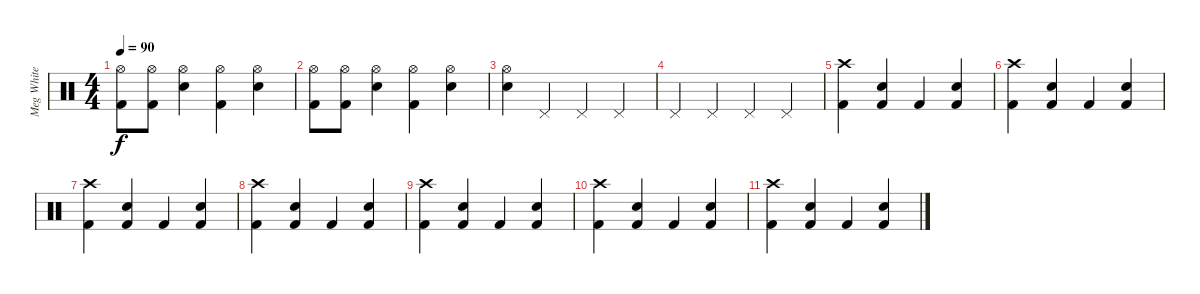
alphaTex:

\track ("Meg White" "Meg White") {instrument percussion}
\staff {score}
\articulation defaults
\ts (4 4)
\tempo 90
\clef neutral
\ks c
("Hi-Hat (open)" "Kick (hit) 2").8{dy f} ("Hi-Hat (open)" "Kick (hit) 2").8 ("Hi-Hat (open)" "Electric Snare (hit)").4 ("Hi-Hat (open)" "Kick (hit) 2").4 ("Hi-Hat (open)" "Electric Snare (hit)").4 |
("Hi-Hat (open)" "Kick (hit) 2").8 ("Hi-Hat (open)" "Kick (hit) 2").8 ("Hi-Hat (open)" "Electric Snare (hit)").4 ("Hi-Hat (open)" "Kick (hit) 2").4 ("Hi-Hat (open)" "Electric Snare (hit)").4 |
("Hi-Hat (open)" "Electric Snare (hit)").4 "Pedal Hi-Hat (hit)".4 "Pedal Hi-Hat (hit)".4 "Pedal Hi-Hat (hit)".4 |
"Pedal Hi-Hat (hit)".4 "Pedal Hi-Hat (hit)".4 "Pedal Hi-Hat (hit)".4 "Pedal Hi-Hat (hit)".4 |
("Crash high (hit)" "Kick (hit) 2").4 ("Kick (hit) 2" "Electric Snare (hit)").4 "Kick (hit) 2".4 ("Kick (hit) 2" "Electric Snare (hit)").4 |
("Crash high (hit)" "Kick (hit) 2").4 ("Kick (hit) 2" "Electric Snare (hit)").4 "Kick (hit) 2".4 ("Kick (hit) 2" "Electric Snare (hit)").4 |
("Crash high (hit)" "Kick (hit) 2").4 ("Kick (hit) 2" "Electric Snare (hit)").4 "Kick (hit) 2".4 ("Kick (hit) 2" "Electric Snare (hit)").4 |
("Crash high (hit)" "Kick (hit) 2").4 ("Kick (hit) 2" "Electric Snare (hit)").4 "Kick (hit) 2".4 ("Kick (hit) 2" "Electric Snare (hit)").4 |
("Crash high (hit)" "Kick (hit) 2").4 ("Kick (hit) 2" "Electric Snare (hit)").4 "Kick (hit) 2".4 ("Kick (hit) 2" "Electric Snare (hit)").4 |
("Crash high (hit)" "Kick (hit) 2").4 ("Kick (hit) 2" "Electric Snare (hit)").4 "Kick (hit) 2".4 ("Kick (hit) 2" "Electric Snare (hit)").4 |
("Crash high (hit)" "Kick (hit) 2").4 ("Kick (hit) 2" "Electric Snare (hit)").4 "Kick (hit) 2".4 ("Kick (hit) 2" "Electric Snare (hit)").4
